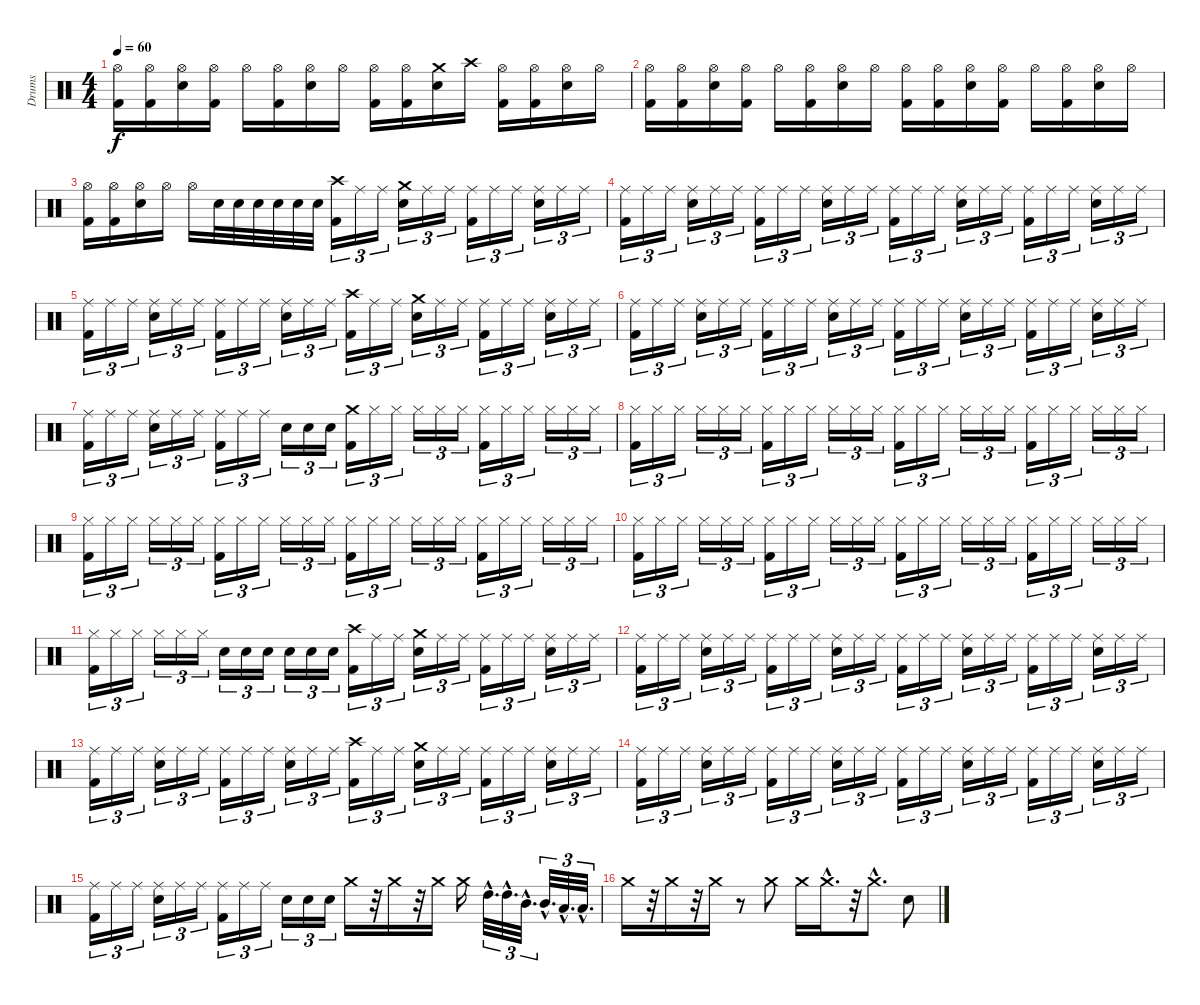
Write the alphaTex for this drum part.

\track ("Drums" "Drums") {instrument percussion}
\staff {score}
\articulation defaults
\ts (4 4)
\tempo 60
\clef neutral
\ks c
("Hi-Hat (open)" "Kick (hit) 2").16{dy f} ("Hi-Hat (open)" "Kick (hit) 2").16 ("Hi-Hat (open)" "Electric Snare (hit)").16 ("Hi-Hat (open)" "Kick (hit) 2").16 "Hi-Hat (open)".16 ("Hi-Hat (open)" "Kick (hit) 2").16 ("Hi-Hat (open)" "Electric Snare (hit)").16 "Hi-Hat (open)".16 ("Hi-Hat (open)" "Kick (hit) 2").16 ("Hi-Hat (open)" "Kick (hit) 2").16 ("Crash medium (hit)" "Electric Snare (hit)").16 "Crash high (hit)".16 ("Hi-Hat (open)" "Kick (hit) 2").16 ("Hi-Hat (open)" "Kick (hit) 2").16 ("Hi-Hat (open)" "Electric Snare (hit)").16 "Hi-Hat (open)".16 |
("Hi-Hat (open)" "Kick (hit) 2").16 ("Hi-Hat (open)" "Kick (hit) 2").16 ("Hi-Hat (open)" "Electric Snare (hit)").16 ("Hi-Hat (open)" "Kick (hit) 2").16 "Hi-Hat (open)".16 ("Hi-Hat (open)" "Kick (hit) 2").16 ("Hi-Hat (open)" "Electric Snare (hit)").16 "Hi-Hat (open)".16 ("Hi-Hat (open)" "Kick (hit) 2").16 ("Hi-Hat (open)" "Kick (hit) 2").16 ("Hi-Hat (open)" "Electric Snare (hit)").16 ("Hi-Hat (open)" "Kick (hit) 2").16 "Hi-Hat (open)".16 ("Hi-Hat (open)" "Kick (hit) 2").16 ("Hi-Hat (open)" "Electric Snare (hit)").16 "Hi-Hat (open)".16 |
("Hi-Hat (open)" "Kick (hit) 2").16 ("Hi-Hat (open)" "Kick (hit) 2").16 ("Hi-Hat (open)" "Electric Snare (hit)").16 "Hi-Hat (open)".16 "Hi-Hat (open)".16 "Electric Snare (hit)".32 "Electric Snare (hit)".32 "Electric Snare (hit)".32 "Electric Snare (hit)".32 "Electric Snare (hit)".32 "Electric Snare (hit)".32 ("Crash high (hit)" "Kick (hit) 2").16{tu (3 2)} "Ride (middle)".16{tu (3 2)} "Ride (middle)".16{tu (3 2)} ("Crash medium (hit)" "Electric Snare (hit)").16{tu (3 2)} "Ride (middle)".16{tu (3 2)} "Ride (middle)".16{tu (3 2)} ("Ride (middle)" "Kick (hit) 2").16{tu (3 2)} "Ride (middle)".16{tu (3 2)} "Ride (middle)".16{tu (3 2)} ("Ride (middle)" "Electric Snare (hit)").16{tu (3 2)} "Ride (middle)".16{tu (3 2)} "Ride (middle)".16{tu (3 2)} |
("Ride (middle)" "Kick (hit) 2").16{tu (3 2)} "Ride (middle)".16{tu (3 2)} "Ride (middle)".16{tu (3 2)} ("Ride (middle)" "Electric Snare (hit)").16{tu (3 2)} "Ride (middle)".16{tu (3 2)} "Ride (middle)".16{tu (3 2)} ("Ride (middle)" "Kick (hit) 2").16{tu (3 2)} "Ride (middle)".16{tu (3 2)} "Ride (middle)".16{tu (3 2)} ("Ride (middle)" "Electric Snare (hit)").16{tu (3 2)} "Ride (middle)".16{tu (3 2)} "Ride (middle)".16{tu (3 2)} ("Ride (middle)" "Kick (hit) 2").16{tu (3 2)} "Ride (middle)".16{tu (3 2)} "Ride (middle)".16{tu (3 2)} ("Ride (middle)" "Electric Snare (hit)").16{tu (3 2)} "Ride (middle)".16{tu (3 2)} "Ride (middle)".16{tu (3 2)} ("Ride (middle)" "Kick (hit) 2").16{tu (3 2)} "Ride (middle)".16{tu (3 2)} "Ride (middle)".16{tu (3 2)} ("Ride (middle)" "Electric Snare (hit)").16{tu (3 2)} "Ride (middle)".16{tu (3 2)} "Ride (middle)".16{tu (3 2)} |
("Ride (middle)" "Kick (hit) 2").16{tu (3 2)} "Ride (middle)".16{tu (3 2)} "Ride (middle)".16{tu (3 2)} ("Ride (middle)" "Electric Snare (hit)").16{tu (3 2)} "Ride (middle)".16{tu (3 2)} "Ride (middle)".16{tu (3 2)} ("Ride (middle)" "Kick (hit) 2").16{tu (3 2)} "Ride (middle)".16{tu (3 2)} "Ride (middle)".16{tu (3 2)} ("Ride (middle)" "Electric Snare (hit)").16{tu (3 2)} "Ride (middle)".16{tu (3 2)} "Ride (middle)".16{tu (3 2)} ("Crash high (hit)" "Kick (hit) 2").16{tu (3 2)} "Ride (middle)".16{tu (3 2)} "Ride (middle)".16{tu (3 2)} ("Crash medium (hit)" "Electric Snare (hit)").16{tu (3 2)} "Ride (middle)".16{tu (3 2)} "Ride (middle)".16{tu (3 2)} ("Ride (middle)" "Kick (hit) 2").16{tu (3 2)} "Ride (middle)".16{tu (3 2)} "Ride (middle)".16{tu (3 2)} ("Ride (middle)" "Electric Snare (hit)").16{tu (3 2)} "Ride (middle)".16{tu (3 2)} "Ride (middle)".16{tu (3 2)} |
("Ride (middle)" "Kick (hit) 2").16{tu (3 2)} "Ride (middle)".16{tu (3 2)} "Ride (middle)".16{tu (3 2)} ("Ride (middle)" "Electric Snare (hit)").16{tu (3 2)} "Ride (middle)".16{tu (3 2)} "Ride (middle)".16{tu (3 2)} ("Ride (middle)" "Kick (hit) 2").16{tu (3 2)} "Ride (middle)".16{tu (3 2)} "Ride (middle)".16{tu (3 2)} ("Ride (middle)" "Electric Snare (hit)").16{tu (3 2)} "Ride (middle)".16{tu (3 2)} "Ride (middle)".16{tu (3 2)} ("Ride (middle)" "Kick (hit) 2").16{tu (3 2)} "Ride (middle)".16{tu (3 2)} "Ride (middle)".16{tu (3 2)} ("Ride (middle)" "Electric Snare (hit)").16{tu (3 2)} "Ride (middle)".16{tu (3 2)} "Ride (middle)".16{tu (3 2)} ("Ride (middle)" "Kick (hit) 2").16{tu (3 2)} "Ride (middle)".16{tu (3 2)} "Ride (middle)".16{tu (3 2)} ("Ride (middle)" "Electric Snare (hit)").16{tu (3 2)} "Ride (middle)".16{tu (3 2)} "Ride (middle)".16{tu (3 2)} |
("Ride (middle)" "Kick (hit) 2").16{tu (3 2)} "Ride (middle)".16{tu (3 2)} "Ride (middle)".16{tu (3 2)} ("Ride (middle)" "Electric Snare (hit)").16{tu (3 2)} "Ride (middle)".16{tu (3 2)} "Ride (middle)".16{tu (3 2)} ("Ride (middle)" "Kick (hit) 2").16{tu (3 2)} "Ride (middle)".16{tu (3 2)} "Ride (middle)".16{tu (3 2)} "Electric Snare (hit)".16{tu (3 2)} "Electric Snare (hit)".16{tu (3 2)} "Electric Snare (hit)".16{tu (3 2)} ("Crash medium (hit)" "Kick (hit) 2").16{tu (3 2)} "Hi-Hat (closed)".16{tu (3 2)} "Hi-Hat (closed)".16{tu (3 2)} "Hi-Hat (closed)".16{tu (3 2)} "Hi-Hat (closed)".16{tu (3 2)} "Hi-Hat (closed)".16{tu (3 2)} ("Hi-Hat (closed)" "Kick (hit) 2").16{tu (3 2)} "Hi-Hat (closed)".16{tu (3 2)} "Hi-Hat (closed)".16{tu (3 2)} "Hi-Hat (closed)".16{tu (3 2)} "Hi-Hat (closed)".16{tu (3 2)} "Hi-Hat (closed)".16{tu (3 2)} |
("Hi-Hat (closed)" "Kick (hit) 2").16{tu (3 2)} "Hi-Hat (closed)".16{tu (3 2)} "Hi-Hat (closed)".16{tu (3 2)} "Hi-Hat (closed)".16{tu (3 2)} "Hi-Hat (closed)".16{tu (3 2)} "Hi-Hat (closed)".16{tu (3 2)} ("Hi-Hat (closed)" "Kick (hit) 2").16{tu (3 2)} "Hi-Hat (closed)".16{tu (3 2)} "Hi-Hat (closed)".16{tu (3 2)} "Hi-Hat (closed)".16{tu (3 2)} "Hi-Hat (closed)".16{tu (3 2)} "Hi-Hat (closed)".16{tu (3 2)} ("Hi-Hat (closed)" "Kick (hit) 2").16{tu (3 2)} "Hi-Hat (closed)".16{tu (3 2)} "Hi-Hat (closed)".16{tu (3 2)} "Hi-Hat (closed)".16{tu (3 2)} "Hi-Hat (closed)".16{tu (3 2)} "Hi-Hat (closed)".16{tu (3 2)} ("Hi-Hat (closed)" "Kick (hit) 2").16{tu (3 2)} "Hi-Hat (closed)".16{tu (3 2)} "Hi-Hat (closed)".16{tu (3 2)} "Hi-Hat (closed)".16{tu (3 2)} "Hi-Hat (closed)".16{tu (3 2)} "Hi-Hat (closed)".16{tu (3 2)} |
("Hi-Hat (closed)" "Kick (hit) 2").16{tu (3 2)} "Hi-Hat (closed)".16{tu (3 2)} "Hi-Hat (closed)".16{tu (3 2)} "Hi-Hat (closed)".16{tu (3 2)} "Hi-Hat (closed)".16{tu (3 2)} "Hi-Hat (closed)".16{tu (3 2)} ("Hi-Hat (closed)" "Kick (hit) 2").16{tu (3 2)} "Hi-Hat (closed)".16{tu (3 2)} "Hi-Hat (closed)".16{tu (3 2)} "Hi-Hat (closed)".16{tu (3 2)} "Hi-Hat (closed)".16{tu (3 2)} "Hi-Hat (closed)".16{tu (3 2)} ("Hi-Hat (closed)" "Kick (hit) 2").16{tu (3 2)} "Hi-Hat (closed)".16{tu (3 2)} "Hi-Hat (closed)".16{tu (3 2)} "Hi-Hat (closed)".16{tu (3 2)} "Hi-Hat (closed)".16{tu (3 2)} "Hi-Hat (closed)".16{tu (3 2)} ("Hi-Hat (closed)" "Kick (hit) 2").16{tu (3 2)} "Hi-Hat (closed)".16{tu (3 2)} "Hi-Hat (closed)".16{tu (3 2)} "Hi-Hat (closed)".16{tu (3 2)} "Hi-Hat (closed)".16{tu (3 2)} "Hi-Hat (closed)".16{tu (3 2)} |
("Hi-Hat (closed)" "Kick (hit) 2").16{tu (3 2)} "Hi-Hat (closed)".16{tu (3 2)} "Hi-Hat (closed)".16{tu (3 2)} "Hi-Hat (closed)".16{tu (3 2)} "Hi-Hat (closed)".16{tu (3 2)} "Hi-Hat (closed)".16{tu (3 2)} ("Hi-Hat (closed)" "Kick (hit) 2").16{tu (3 2)} "Hi-Hat (closed)".16{tu (3 2)} "Hi-Hat (closed)".16{tu (3 2)} "Hi-Hat (closed)".16{tu (3 2)} "Hi-Hat (closed)".16{tu (3 2)} "Hi-Hat (closed)".16{tu (3 2)} ("Hi-Hat (closed)" "Kick (hit) 2").16{tu (3 2)} "Hi-Hat (closed)".16{tu (3 2)} "Hi-Hat (closed)".16{tu (3 2)} "Hi-Hat (closed)".16{tu (3 2)} "Hi-Hat (closed)".16{tu (3 2)} "Hi-Hat (closed)".16{tu (3 2)} ("Hi-Hat (closed)" "Kick (hit) 2").16{tu (3 2)} "Hi-Hat (closed)".16{tu (3 2)} "Hi-Hat (closed)".16{tu (3 2)} "Hi-Hat (closed)".16{tu (3 2)} "Hi-Hat (closed)".16{tu (3 2)} "Hi-Hat (closed)".16{tu (3 2)} |
("Hi-Hat (closed)" "Kick (hit) 2").16{tu (3 2)} "Hi-Hat (closed)".16{tu (3 2)} "Hi-Hat (closed)".16{tu (3 2)} "Hi-Hat (closed)".16{tu (3 2)} "Hi-Hat (closed)".16{tu (3 2)} "Hi-Hat (closed)".16{tu (3 2)} "Electric Snare (hit)".16{tu (3 2)} "Electric Snare (hit)".16{tu (3 2)} "Electric Snare (hit)".16{tu (3 2)} "Electric Snare (hit)".16{tu (3 2)} "Electric Snare (hit)".16{tu (3 2)} "Electric Snare (hit)".16{tu (3 2)} ("Crash high (hit)" "Kick (hit) 2").16{tu (3 2)} "Ride (middle)".16{tu (3 2)} "Ride (middle)".16{tu (3 2)} ("Crash medium (hit)" "Electric Snare (hit)").16{tu (3 2)} "Ride (middle)".16{tu (3 2)} "Ride (middle)".16{tu (3 2)} ("Ride (middle)" "Kick (hit) 2").16{tu (3 2)} "Ride (middle)".16{tu (3 2)} "Ride (middle)".16{tu (3 2)} ("Ride (middle)" "Electric Snare (hit)").16{tu (3 2)} "Ride (middle)".16{tu (3 2)} "Ride (middle)".16{tu (3 2)} |
("Ride (middle)" "Kick (hit) 2").16{tu (3 2)} "Ride (middle)".16{tu (3 2)} "Ride (middle)".16{tu (3 2)} ("Ride (middle)" "Electric Snare (hit)").16{tu (3 2)} "Ride (middle)".16{tu (3 2)} "Ride (middle)".16{tu (3 2)} ("Ride (middle)" "Kick (hit) 2").16{tu (3 2)} "Ride (middle)".16{tu (3 2)} "Ride (middle)".16{tu (3 2)} ("Ride (middle)" "Electric Snare (hit)").16{tu (3 2)} "Ride (middle)".16{tu (3 2)} "Ride (middle)".16{tu (3 2)} ("Ride (middle)" "Kick (hit) 2").16{tu (3 2)} "Ride (middle)".16{tu (3 2)} "Ride (middle)".16{tu (3 2)} ("Ride (middle)" "Electric Snare (hit)").16{tu (3 2)} "Ride (middle)".16{tu (3 2)} "Ride (middle)".16{tu (3 2)} ("Ride (middle)" "Kick (hit) 2").16{tu (3 2)} "Ride (middle)".16{tu (3 2)} "Ride (middle)".16{tu (3 2)} ("Ride (middle)" "Electric Snare (hit)").16{tu (3 2)} "Ride (middle)".16{tu (3 2)} "Ride (middle)".16{tu (3 2)} |
("Ride (middle)" "Kick (hit) 2").16{tu (3 2)} "Ride (middle)".16{tu (3 2)} "Ride (middle)".16{tu (3 2)} ("Ride (middle)" "Electric Snare (hit)").16{tu (3 2)} "Ride (middle)".16{tu (3 2)} "Ride (middle)".16{tu (3 2)} ("Ride (middle)" "Kick (hit) 2").16{tu (3 2)} "Ride (middle)".16{tu (3 2)} "Ride (middle)".16{tu (3 2)} ("Ride (middle)" "Electric Snare (hit)").16{tu (3 2)} "Ride (middle)".16{tu (3 2)} "Ride (middle)".16{tu (3 2)} ("Crash high (hit)" "Kick (hit) 2").16{tu (3 2)} "Ride (middle)".16{tu (3 2)} "Ride (middle)".16{tu (3 2)} ("Crash medium (hit)" "Electric Snare (hit)").16{tu (3 2)} "Ride (middle)".16{tu (3 2)} "Ride (middle)".16{tu (3 2)} ("Ride (middle)" "Kick (hit) 2").16{tu (3 2)} "Ride (middle)".16{tu (3 2)} "Ride (middle)".16{tu (3 2)} ("Ride (middle)" "Electric Snare (hit)").16{tu (3 2)} "Ride (middle)".16{tu (3 2)} "Ride (middle)".16{tu (3 2)} |
("Ride (middle)" "Kick (hit) 2").16{tu (3 2)} "Ride (middle)".16{tu (3 2)} "Ride (middle)".16{tu (3 2)} ("Ride (middle)" "Electric Snare (hit)").16{tu (3 2)} "Ride (middle)".16{tu (3 2)} "Ride (middle)".16{tu (3 2)} ("Ride (middle)" "Kick (hit) 2").16{tu (3 2)} "Ride (middle)".16{tu (3 2)} "Ride (middle)".16{tu (3 2)} ("Ride (middle)" "Electric Snare (hit)").16{tu (3 2)} "Ride (middle)".16{tu (3 2)} "Ride (middle)".16{tu (3 2)} ("Ride (middle)" "Kick (hit) 2").16{tu (3 2)} "Ride (middle)".16{tu (3 2)} "Ride (middle)".16{tu (3 2)} ("Ride (middle)" "Electric Snare (hit)").16{tu (3 2)} "Ride (middle)".16{tu (3 2)} "Ride (middle)".16{tu (3 2)} ("Ride (middle)" "Kick (hit) 2").16{tu (3 2)} "Ride (middle)".16{tu (3 2)} "Ride (middle)".16{tu (3 2)} ("Ride (middle)" "Electric Snare (hit)").16{tu (3 2)} "Ride (middle)".16{tu (3 2)} "Ride (middle)".16{tu (3 2)} |
("Ride (middle)" "Kick (hit) 2").16{tu (3 2)} "Ride (middle)".16{tu (3 2)} "Ride (middle)".16{tu (3 2)} ("Ride (middle)" "Electric Snare (hit)").16{tu (3 2)} "Ride (middle)".16{tu (3 2)} "Ride (middle)".16{tu (3 2)} ("Ride (middle)" "Kick (hit) 2").16{tu (3 2)} "Ride (middle)".16{tu (3 2)} "Ride (middle)".16{tu (3 2)} "Electric Snare (hit)".16{tu (3 2)} "Electric Snare (hit)".16{tu (3 2)} "Electric Snare (hit)".16{tu (3 2)} "Crash medium (hit)".16 r.32 "Crash medium (hit)".16 r.32 "Crash medium (hit)".16 "Crash medium (hit)".16 "High Tom (hit)"{hac}.32{d tu (3 2)} "High Tom (hit)"{hac}.32{d tu (3 2)} "Mid Tom (hit)"{hac}.32{d tu (3 2)} "Mid Tom (hit)"{hac}.32{d tu (3 2)} "Low Tom (hit)"{hac}.32{d tu (3 2)} "Low Tom (hit)"{hac}.32{d tu (3 2)} |
"Crash medium (hit)".16 r.32 "Crash medium (hit)".16 r.32 "Crash medium (hit)".16 r.8 "Crash medium (hit)".8 "Crash medium (hit)".16 "Crash medium (hit)"{hac}.16{d} r.32 "Crash medium (hit)"{hac}.8{d} "Electric Snare (hit)".8
